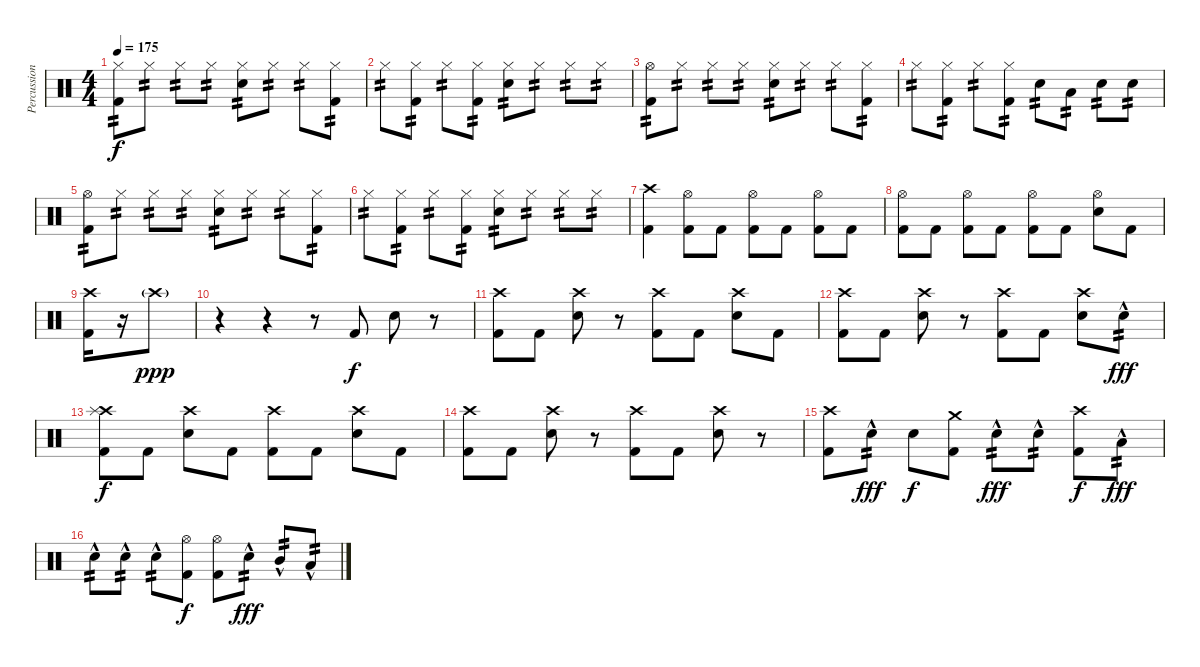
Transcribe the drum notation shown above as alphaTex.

\track ("Percussion" "Percussion") {instrument percussion bank 177}
\staff {score}
\articulation defaults
\ts (4 4)
\tempo 175
\clef neutral
\ks c
("Hi-Hat (closed)" "Kick (hit) 2").8{tp 2 dy f} "Hi-Hat (closed)".8{tp 2} "Hi-Hat (closed)".8{tp 2} "Hi-Hat (closed)".8{tp 2} ("Hi-Hat (closed)" "Electric Snare (hit)").8{tp 2} "Hi-Hat (closed)".8{tp 2} "Hi-Hat (closed)".8{tp 2} ("Hi-Hat (closed)" "Kick (hit) 2").8{tp 2} |
"Hi-Hat (closed)".8{tp 2} ("Hi-Hat (closed)" "Kick (hit) 2").8{tp 2} "Hi-Hat (closed)".8{tp 2} ("Hi-Hat (closed)" "Kick (hit) 2").8{tp 2} ("Hi-Hat (closed)" "Electric Snare (hit)").8{tp 2} "Hi-Hat (closed)".8{tp 2} "Hi-Hat (closed)".8{tp 2} "Hi-Hat (closed)".8{tp 2} |
("Hi-Hat (open)" "Kick (hit) 2").8{tp 2} "Hi-Hat (closed)".8{tp 2} "Hi-Hat (closed)".8{tp 2} "Hi-Hat (closed)".8{tp 2} ("Hi-Hat (closed)" "Electric Snare (hit)").8{tp 2} "Hi-Hat (closed)".8{tp 2} "Hi-Hat (closed)".8{tp 2} ("Hi-Hat (closed)" "Kick (hit) 2").8{tp 2} |
"Hi-Hat (closed)".8{tp 2} ("Hi-Hat (closed)" "Kick (hit) 2").8{tp 2} "Hi-Hat (closed)".8{tp 2} ("Hi-Hat (closed)" "Kick (hit) 2").8{tp 2} "Electric Snare (hit)".8{tp 2} "Low Tom (hit)".8{tp 2} "Electric Snare (hit)".8{tp 2} "Electric Snare (hit)".8{tp 2} |
("Hi-Hat (open)" "Kick (hit) 2").8{tp 2} "Hi-Hat (closed)".8{tp 2} "Hi-Hat (closed)".8{tp 2} "Hi-Hat (closed)".8{tp 2} ("Hi-Hat (closed)" "Electric Snare (hit)").8{tp 2} "Hi-Hat (closed)".8{tp 2} "Hi-Hat (closed)".8{tp 2} ("Hi-Hat (closed)" "Kick (hit) 2").8{tp 2} |
"Hi-Hat (closed)".8{tp 2} ("Hi-Hat (closed)" "Kick (hit) 2").8{tp 2} "Hi-Hat (closed)".8{tp 2} ("Hi-Hat (closed)" "Kick (hit) 2").8{tp 2} ("Hi-Hat (closed)" "Electric Snare (hit)").8{tp 2} "Hi-Hat (closed)".8{tp 2} "Hi-Hat (closed)".8{tp 2} "Hi-Hat (closed)".8{tp 2} |
("Crash high (hit)" "Kick (hit) 2").4 ("Hi-Hat (open)" "Kick (hit) 2").8 "Kick (hit) 2".8 ("Hi-Hat (open)" "Kick (hit) 2").8 "Kick (hit) 2".8 ("Hi-Hat (open)" "Kick (hit) 2").8 "Kick (hit) 2".8 |
("Hi-Hat (open)" "Kick (hit) 2").8 "Kick (hit) 2".8 ("Hi-Hat (open)" "Kick (hit) 2").8 "Kick (hit) 2".8 ("Hi-Hat (open)" "Kick (hit) 2").8 "Kick (hit) 2".8 ("Hi-Hat (open)" "Electric Snare (hit)").8 "Kick (hit) 2".8 |
("Crash high (hit)" "Kick (hit) 2").16 r.16 "Crash high (hit)"{g}.8{dy ppp volume 0} |
r.4 r.4 r.8{volume 13} "Kick (hit) 2".8{dy f} "Electric Snare (hit)".8 r.8 |
("Crash high (hit)" "Kick (hit) 2").8 "Kick (hit) 2".8 ("Crash high (hit)" "Electric Snare (hit)").8 r.8 ("Crash high (hit)" "Kick (hit) 2").8 "Kick (hit) 2".8 ("Crash high (hit)" "Electric Snare (hit)").8 "Kick (hit) 2".8 |
("Crash high (hit)" "Kick (hit) 2").8 "Kick (hit) 2".8 ("Crash high (hit)" "Electric Snare (hit)").8 r.8 ("Crash high (hit)" "Kick (hit) 2").8 "Kick (hit) 2".8 ("Crash high (hit)" "Electric Snare (hit)").8 "Electric Snare (hit)"{hac}.8{tp 2 dy fff} |
("Crash high (hit)" "Splash (hit)" "Kick (hit) 2").8{dy f} "Kick (hit) 2".8 ("Crash high (hit)" "Electric Snare (hit)").8 "Kick (hit) 2".8 ("Crash high (hit)" "Kick (hit) 2").8 "Kick (hit) 2".8 ("Crash high (hit)" "Electric Snare (hit)").8 "Kick (hit) 2".8 |
("Crash high (hit)" "Kick (hit) 2").8 "Kick (hit) 2".8 ("Crash high (hit)" "Electric Snare (hit)").8 r.8 ("Crash high (hit)" "Kick (hit) 2").8 "Kick (hit) 2".8 ("Crash high (hit)" "Electric Snare (hit)").8 r.8 |
("Crash high (hit)" "Kick (hit) 2").8 "Electric Snare (hit)"{hac}.8{tp 2 dy fff} "Electric Snare (hit)".8{dy f} ("Crash medium (hit)" "Kick (hit) 2").8 "Electric Snare (hit)"{hac}.8{tp 2 dy fff} "Electric Snare (hit)"{hac}.8{tp 2} ("Crash high (hit)" "Kick (hit) 2").8{dy f} "Low Tom (hit)"{hac}.8{tp 2 dy fff} |
"Electric Snare (hit)"{hac}.8{tp 2} "Electric Snare (hit)"{hac}.8{tp 2} "Electric Snare (hit)"{hac}.8{tp 2} ("Hi-Hat (open)" "Kick (hit) 2").8{dy f} ("Hi-Hat (open)" "Kick (hit) 2").8 "Electric Snare (hit)"{hac}.8{tp 2 dy fff} "Mid Tom (hit)"{hac}.8{tp 2} "Low Tom (hit)"{hac}.8{tp 2}
